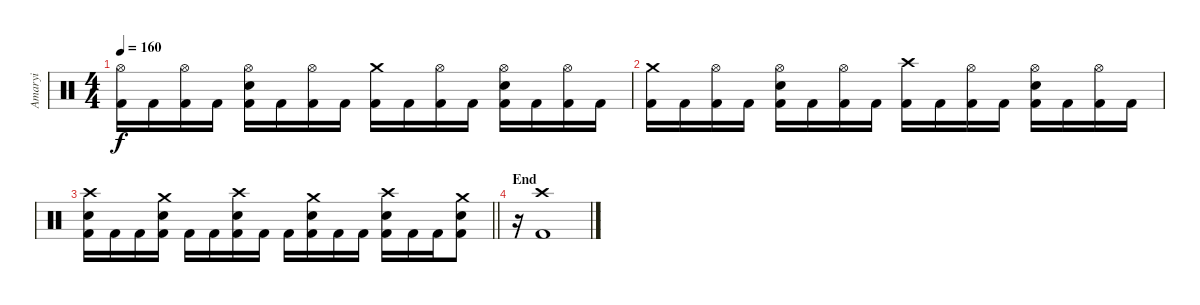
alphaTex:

\track ("Amaryi" "Amaryi") {instrument percussion}
\staff {score}
\articulation defaults
\ts (4 4)
\tempo 160
\clef neutral
\ks c
("Hi-Hat (open)" "Kick (hit) 2").16{dy f} "Kick (hit) 2".16 ("Hi-Hat (open)" "Kick (hit) 2").16 "Kick (hit) 2".16 ("Hi-Hat (open)" "Electric Snare (hit)" "Kick (hit) 2").16 "Kick (hit) 2".16 ("Hi-Hat (open)" "Kick (hit) 2").16 "Kick (hit) 2".16 ("Crash medium (hit)" "Kick (hit) 2").16 "Kick (hit) 2".16 ("Hi-Hat (open)" "Kick (hit) 2").16 "Kick (hit) 2".16 ("Hi-Hat (open)" "Electric Snare (hit)" "Kick (hit) 2").16 "Kick (hit) 2".16 ("Hi-Hat (open)" "Kick (hit) 2").16 "Kick (hit) 2".16 |
("Crash medium (hit)" "Kick (hit) 2").16 "Kick (hit) 2".16 ("Hi-Hat (open)" "Kick (hit) 2").16 "Kick (hit) 2".16 ("Hi-Hat (open)" "Electric Snare (hit)" "Kick (hit) 2").16 "Kick (hit) 2".16 ("Hi-Hat (open)" "Kick (hit) 2").16 "Kick (hit) 2".16 ("Crash high (hit)" "Kick (hit) 2").16 "Kick (hit) 2".16 ("Hi-Hat (open)" "Kick (hit) 2").16 "Kick (hit) 2".16 ("Hi-Hat (open)" "Electric Snare (hit)" "Kick (hit) 2").16 "Kick (hit) 2".16 ("Hi-Hat (open)" "Kick (hit) 2").16 "Kick (hit) 2".16 |
\barLineRight lightlight
("Crash high (hit)" "Electric Snare (hit)" "Kick (hit) 2").16 "Kick (hit) 2".16 "Kick (hit) 2".16 ("Crash medium (hit)" "Electric Snare (hit)" "Kick (hit) 2").16 "Kick (hit) 2".16 "Kick (hit) 2".16 ("Crash high (hit)" "Electric Snare (hit)" "Kick (hit) 2").16 "Kick (hit) 2".16 "Kick (hit) 2".16 ("Crash medium (hit)" "Electric Snare (hit)" "Kick (hit) 2").16 "Kick (hit) 2".16 "Kick (hit) 2".16 ("Crash high (hit)" "Electric Snare (hit)" "Kick (hit) 2").16 "Kick (hit) 2".16 "Kick (hit) 2".16 ("Crash medium (hit)" "Electric Snare (hit)" "Kick (hit) 2").8 |
\section ("" "End")
r.16 ("Crash high (hit)" "Kick (hit) 2").1
